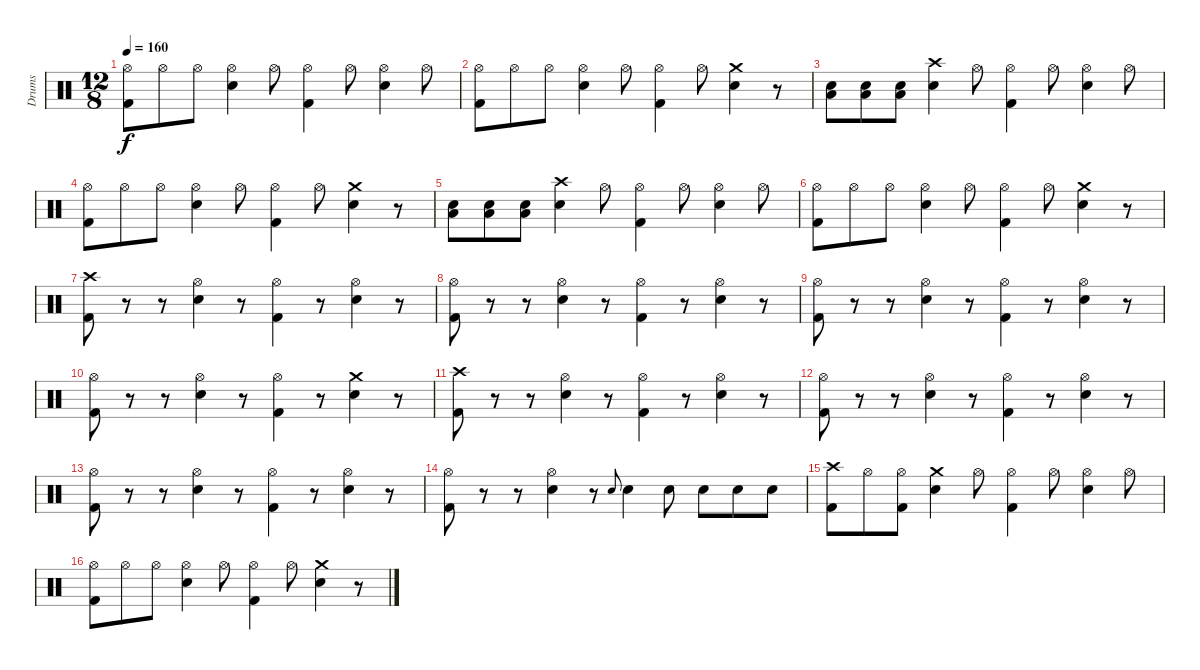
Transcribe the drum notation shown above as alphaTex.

\track ("Drums" "Drums") {instrument percussion}
\staff {score}
\articulation defaults
\ts (12 8)
\tempo 160
\clef neutral
\ks c
("Kick (hit) 2" "Hi-Hat (open)").8{dy f} "Hi-Hat (open)".8 "Hi-Hat (open)".8 ("Snare (hit) 2" "Hi-Hat (open)").4 "Hi-Hat (open)".8 ("Kick (hit) 2" "Hi-Hat (open)").4 "Hi-Hat (open)".8 ("Snare (hit) 2" "Hi-Hat (open)").4 "Hi-Hat (open)".8 |
("Kick (hit) 2" "Hi-Hat (open)").8 "Hi-Hat (open)".8 "Hi-Hat (open)".8 ("Snare (hit) 2" "Hi-Hat (open)").4 "Hi-Hat (open)".8 ("Kick (hit) 2" "Hi-Hat (open)").4 "Hi-Hat (open)".8 ("Snare (hit) 2" "Crash medium (hit)").4 r.8 |
("Snare (hit) 2" "Low Tom (hit)").8 ("Snare (hit) 2" "Low Tom (hit)").8 ("Snare (hit) 2" "Low Tom (hit)").8 ("Snare (hit) 2" "Crash high (hit)").4 "Hi-Hat (open)".8 ("Kick (hit) 2" "Hi-Hat (open)").4 "Hi-Hat (open)".8 ("Snare (hit) 2" "Hi-Hat (open)").4 "Hi-Hat (open)".8 |
("Kick (hit) 2" "Hi-Hat (open)").8 "Hi-Hat (open)".8 "Hi-Hat (open)".8 ("Snare (hit) 2" "Hi-Hat (open)").4 "Hi-Hat (open)".8 ("Kick (hit) 2" "Hi-Hat (open)").4 "Hi-Hat (open)".8 ("Snare (hit) 2" "Crash medium (hit)").4 r.8 |
("Snare (hit) 2" "Low Tom (hit)").8 ("Snare (hit) 2" "Low Tom (hit)").8 ("Snare (hit) 2" "Low Tom (hit)").8 ("Snare (hit) 2" "Crash high (hit)").4 "Hi-Hat (open)".8 ("Kick (hit) 2" "Hi-Hat (open)").4 "Hi-Hat (open)".8 ("Snare (hit) 2" "Hi-Hat (open)").4 "Hi-Hat (open)".8 |
("Kick (hit) 2" "Hi-Hat (open)").8 "Hi-Hat (open)".8 "Hi-Hat (open)".8 ("Snare (hit) 2" "Hi-Hat (open)").4 "Hi-Hat (open)".8 ("Kick (hit) 2" "Hi-Hat (open)").4 "Hi-Hat (open)".8 ("Snare (hit) 2" "Crash medium (hit)").4 r.8 |
("Kick (hit) 2" "Crash high (hit)").8 r.8 r.8 ("Snare (hit) 2" "Hi-Hat (open)").4 r.8 ("Kick (hit) 2" "Hi-Hat (open)").4 r.8 ("Snare (hit) 2" "Hi-Hat (open)").4 r.8 |
("Kick (hit) 2" "Hi-Hat (open)").8 r.8 r.8 ("Snare (hit) 2" "Hi-Hat (open)").4 r.8 ("Kick (hit) 2" "Hi-Hat (open)").4 r.8 ("Snare (hit) 2" "Hi-Hat (open)").4 r.8 |
("Kick (hit) 2" "Hi-Hat (open)").8 r.8 r.8 ("Snare (hit) 2" "Hi-Hat (open)").4 r.8 ("Kick (hit) 2" "Hi-Hat (open)").4 r.8 ("Snare (hit) 2" "Hi-Hat (open)").4 r.8 |
("Kick (hit) 2" "Hi-Hat (open)").8 r.8 r.8 ("Snare (hit) 2" "Hi-Hat (open)").4 r.8 ("Kick (hit) 2" "Hi-Hat (open)").4 r.8 ("Snare (hit) 2" "Crash medium (hit)").4 r.8 |
("Kick (hit) 2" "Crash high (hit)").8 r.8 r.8 ("Snare (hit) 2" "Hi-Hat (open)").4 r.8 ("Kick (hit) 2" "Hi-Hat (open)").4 r.8 ("Snare (hit) 2" "Hi-Hat (open)").4 r.8 |
("Kick (hit) 2" "Hi-Hat (open)").8 r.8 r.8 ("Snare (hit) 2" "Hi-Hat (open)").4 r.8 ("Kick (hit) 2" "Hi-Hat (open)").4 r.8 ("Snare (hit) 2" "Hi-Hat (open)").4 r.8 |
("Kick (hit) 2" "Hi-Hat (open)").8 r.8 r.8 ("Snare (hit) 2" "Hi-Hat (open)").4 r.8 ("Kick (hit) 2" "Hi-Hat (open)").4 r.8 ("Snare (hit) 2" "Hi-Hat (open)").4 r.8 |
("Kick (hit) 2" "Hi-Hat (open)").8 r.8 r.8 ("Snare (hit) 2" "Hi-Hat (open)").4 r.8 "Snare (hit) 2".8{gr onbeat} "Snare (hit) 2".4 "Snare (hit) 2".8 "Snare (hit) 2".8 "Snare (hit) 2".8 "Snare (hit) 2".8 |
("Kick (hit) 2" "Crash high (hit)").8 "Hi-Hat (open)".8 ("Kick (hit) 2" "Hi-Hat (open)").8 ("Snare (hit) 2" "Crash medium (hit)").4 "Hi-Hat (open)".8 ("Kick (hit) 2" "Hi-Hat (open)").4 "Hi-Hat (open)".8 ("Snare (hit) 2" "Hi-Hat (open)").4 "Hi-Hat (open)".8 |
("Kick (hit) 2" "Hi-Hat (open)").8 "Hi-Hat (open)".8 "Hi-Hat (open)".8 ("Snare (hit) 2" "Hi-Hat (open)").4 "Hi-Hat (open)".8 ("Kick (hit) 2" "Hi-Hat (open)").4 "Hi-Hat (open)".8 ("Snare (hit) 2" "Crash medium (hit)").4 r.8
